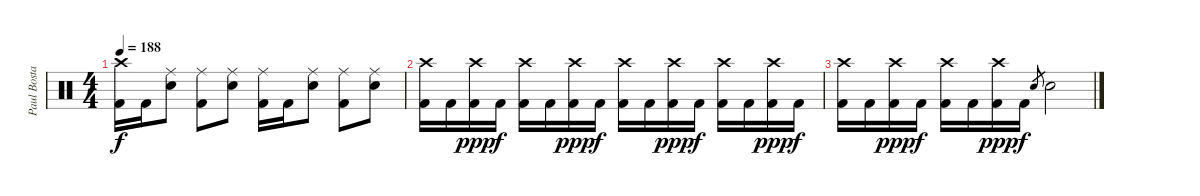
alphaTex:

\track ("Paul Bostaph" "Paul Bosta") {instrument percussion}
\staff {score}
\articulation defaults
\ts (4 4)
\tempo 188
\clef neutral
\ks c
("Crash high (hit)" "Kick (hit) 2").16{dy f} "Kick (hit) 2".16 ("Ride (middle)" "Electric Snare (hit)").8 ("Ride (middle)" "Kick (hit) 2").8 ("Ride (middle)" "Electric Snare (hit)").8 ("Ride (middle)" "Kick (hit) 2").16 "Kick (hit) 2".16 ("Ride (middle)" "Electric Snare (hit)").8 ("Ride (middle)" "Kick (hit) 2").8 ("Ride (middle)" "Electric Snare (hit)").8 |
("Crash high (hit)" "Kick (hit) 2").16 "Kick (hit) 2".16 ("Crash high (hit)" "Kick (hit) 2").16{dy ppp} "Kick (hit) 2".16{dy f} ("Crash high (hit)" "Kick (hit) 2").16 "Kick (hit) 2".16 ("Crash high (hit)" "Kick (hit) 2").16{dy ppp} "Kick (hit) 2".16{dy f} ("Crash high (hit)" "Kick (hit) 2").16 "Kick (hit) 2".16 ("Crash high (hit)" "Kick (hit) 2").16{dy ppp} "Kick (hit) 2".16{dy f} ("Crash high (hit)" "Kick (hit) 2").16 "Kick (hit) 2".16 ("Crash high (hit)" "Kick (hit) 2").16{dy ppp} "Kick (hit) 2".16{dy f} |
("Crash high (hit)" "Kick (hit) 2").16 "Kick (hit) 2".16 ("Crash high (hit)" "Kick (hit) 2").16{dy ppp} "Kick (hit) 2".16{dy f} ("Crash high (hit)" "Kick (hit) 2").16 "Kick (hit) 2".16 ("Crash high (hit)" "Kick (hit) 2").16{dy ppp} "Kick (hit) 2".16{dy f} "Electric Snare (hit)".8{gr} "Electric Snare (hit)".2
